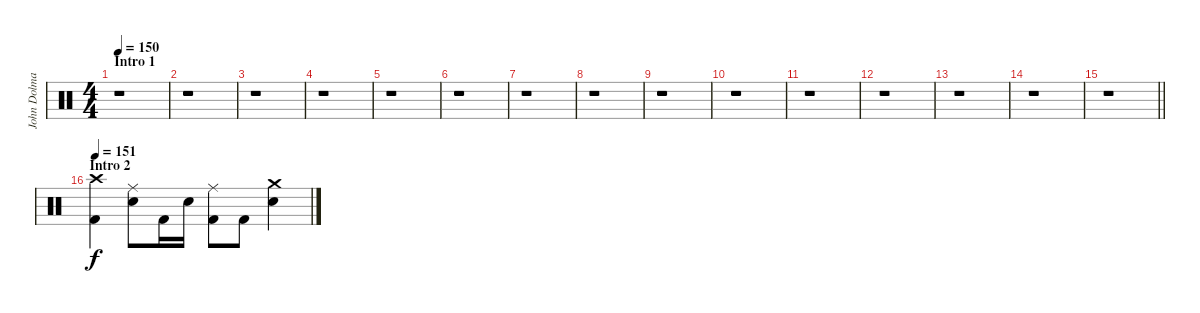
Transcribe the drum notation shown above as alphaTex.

\track ("John Dolmayan" "John Dolma") {instrument percussion}
\staff {score}
\articulation defaults
\ts (4 4)
\section ("" "Intro 1")
\tempo 150
\tempo 147
\tempo 150
\clef neutral
\ks c
r.1{dy f} |
r.1 |
r.1 |
r.1 |
r.1 |
r.1 |
r.1 |
r.1 |
r.1 |
r.1 |
r.1 |
r.1 |
r.1 |
r.1 |
\barLineRight lightlight
r.1 |
\section ("" "Intro 2")
\tempo 151
("Crash high (hit)" "Kick (hit) 2").4 ("Ride (middle)" "Electric Snare (hit)").8 "Kick (hit) 2".16 "Electric Snare (hit)".16 ("Ride (middle)" "Kick (hit) 2").8 "Kick (hit) 2".8 ("Crash medium (hit)" "Electric Snare (hit)").4
